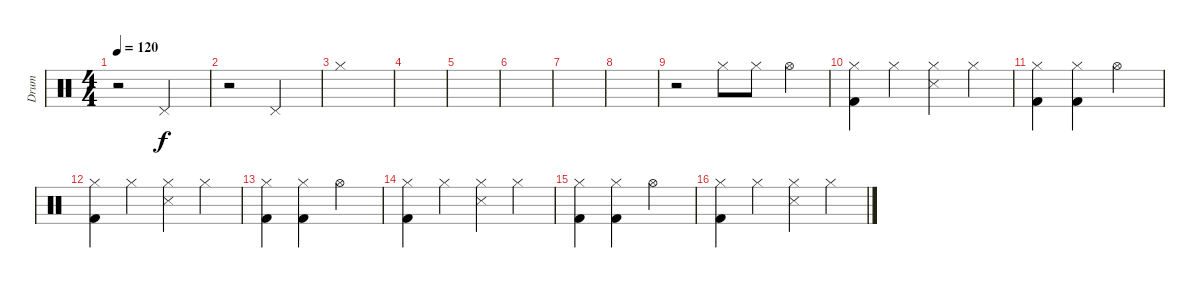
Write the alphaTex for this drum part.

\track ("Drum" "Drum") {instrument percussion}
\staff {score}
\articulation defaults
\ts (4 4)
\tempo 120
\clef neutral
\ks c
r.2{dy f} "Pedal Hi-Hat (hit)".2 |
r.2 "Pedal Hi-Hat (hit)".2 |
"Hi-Hat (closed)".1 |
|
|
|
|
|
r.2 "Hi-Hat (closed)".8 "Hi-Hat (closed)".8 "Hi-Hat (open)".4 |
("Hi-Hat (closed)" "Kick (hit) 2").4 "Hi-Hat (closed)".4 ("Hi-Hat (closed)" "Snare (side stick) 3").4 "Hi-Hat (closed)".4 |
("Hi-Hat (closed)" "Kick (hit) 2").4 ("Hi-Hat (closed)" "Kick (hit) 2").4 "Hi-Hat (open)".2 |
("Hi-Hat (closed)" "Kick (hit) 2").4 "Hi-Hat (closed)".4 ("Hi-Hat (closed)" "Snare (side stick) 3").4 "Hi-Hat (closed)".4 |
("Hi-Hat (closed)" "Kick (hit) 2").4 ("Hi-Hat (closed)" "Kick (hit) 2").4 "Hi-Hat (open)".2 |
("Hi-Hat (closed)" "Kick (hit) 2").4 "Hi-Hat (closed)".4 ("Hi-Hat (closed)" "Snare (side stick) 3").4 "Hi-Hat (closed)".4 |
("Hi-Hat (closed)" "Kick (hit) 2").4 ("Hi-Hat (closed)" "Kick (hit) 2").4 "Hi-Hat (open)".2 |
("Hi-Hat (closed)" "Kick (hit) 2").4 "Hi-Hat (closed)".4 ("Hi-Hat (closed)" "Snare (side stick) 3").4 "Hi-Hat (closed)".4
